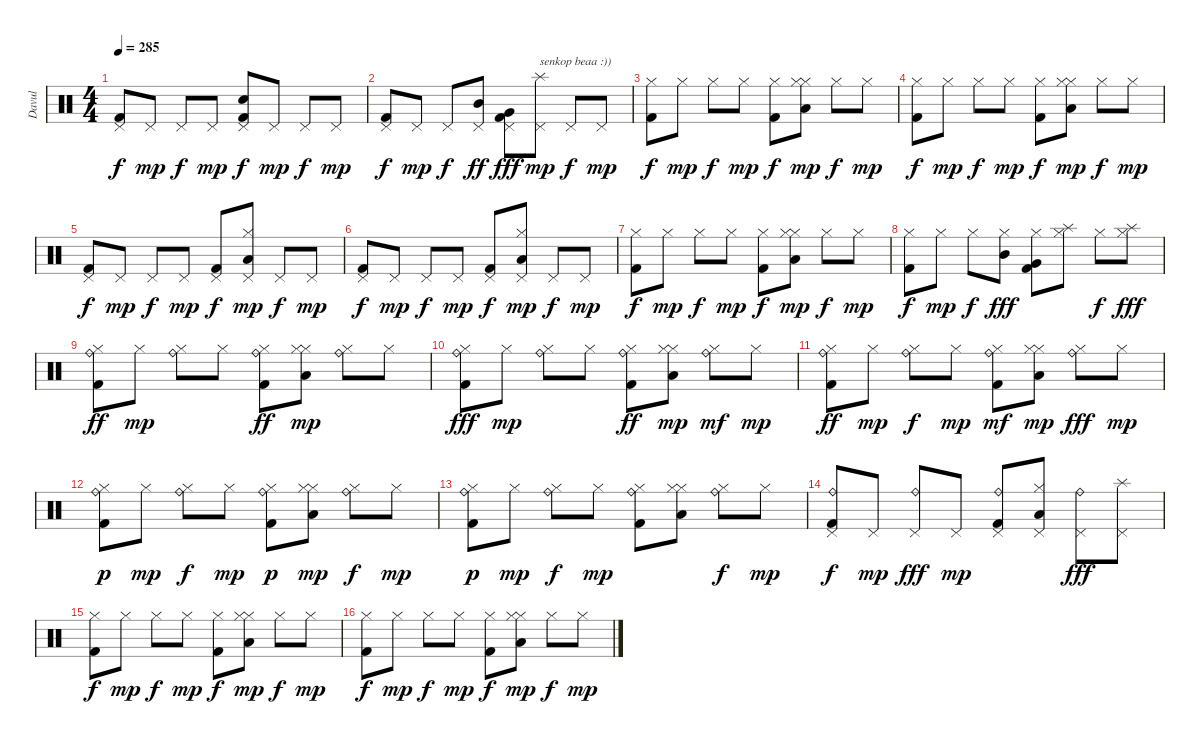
\track ("Davul" "Davul") {instrument percussion}
\staff {score}
\articulation defaults
\ts (4 4)
\tempo 285
\clef neutral
\ks c
("Pedal Hi-Hat (hit)" "Kick (hit) 2").8{dy f} "Pedal Hi-Hat (hit)".8{dy mp} "Pedal Hi-Hat (hit)".8{dy f} "Pedal Hi-Hat (hit)".8{dy mp} ("Pedal Hi-Hat (hit)" "Snare (hit) 2" "Kick (hit) 2").8{dy f} "Pedal Hi-Hat (hit)".8{dy mp} "Pedal Hi-Hat (hit)".8{dy f} "Pedal Hi-Hat (hit)".8{dy mp} |
("Pedal Hi-Hat (hit)" "Kick (hit) 2").8{dy f} "Pedal Hi-Hat (hit)".8{dy mp} "Pedal Hi-Hat (hit)".8{dy f} ("Pedal Hi-Hat (hit)" "Mid Tom (hit)").8{dy ff} ("Pedal Hi-Hat (hit)" "Very Low Tom (hit)" "Kick (hit) 2").8{dy fff} ("Pedal Hi-Hat (hit)" "Splash (hit)").8{txt "senkop beaa :))" dy mp} "Pedal Hi-Hat (hit)".8{dy f} "Pedal Hi-Hat (hit)".8{dy mp} |
("Hi-Hat (closed)" "Kick (hit) 2").8{dy f} "Hi-Hat (closed)".8{dy mp} "Hi-Hat (closed)".8{dy f} "Hi-Hat (closed)".8{dy mp} ("Hi-Hat (closed)" "Kick (hit) 2").8{dy f} ("Hi-Hat (closed)" "Hi-Hat (closed)" "Low Floor Tom (hit)").8{dy mp} "Hi-Hat (closed)".8{dy f} "Hi-Hat (closed)".8{dy mp} |
("Hi-Hat (closed)" "Kick (hit) 2").8{dy f} "Hi-Hat (closed)".8{dy mp} "Hi-Hat (closed)".8{dy f} "Hi-Hat (closed)".8{dy mp} ("Hi-Hat (closed)" "Kick (hit) 2").8{dy f} ("Hi-Hat (closed)" "Hi-Hat (closed)" "Low Floor Tom (hit)").8{dy mp} "Hi-Hat (closed)".8{dy f} "Hi-Hat (closed)".8{dy mp} |
("Pedal Hi-Hat (hit)" "Kick (hit) 2").8{dy f} "Pedal Hi-Hat (hit)".8{dy mp} "Pedal Hi-Hat (hit)".8{dy f} "Pedal Hi-Hat (hit)".8{dy mp} ("Pedal Hi-Hat (hit)" "Kick (hit) 2").8{dy f} ("Pedal Hi-Hat (hit)" "Hi-Hat (closed)" "Low Floor Tom (hit)").8{dy mp} "Pedal Hi-Hat (hit)".8{dy f} "Pedal Hi-Hat (hit)".8{dy mp} |
("Pedal Hi-Hat (hit)" "Kick (hit) 2").8{dy f} "Pedal Hi-Hat (hit)".8{dy mp} "Pedal Hi-Hat (hit)".8{dy f} "Pedal Hi-Hat (hit)".8{dy mp} ("Pedal Hi-Hat (hit)" "Kick (hit) 2").8{dy f} ("Pedal Hi-Hat (hit)" "Hi-Hat (closed)" "Low Floor Tom (hit)").8{dy mp} "Pedal Hi-Hat (hit)".8{dy f} "Pedal Hi-Hat (hit)".8{dy mp} |
("Hi-Hat (closed)" "Kick (hit) 2").8{dy f} "Hi-Hat (closed)".8{dy mp} "Hi-Hat (closed)".8{dy f} "Hi-Hat (closed)".8{dy mp} ("Hi-Hat (closed)" "Kick (hit) 2").8{dy f} ("Hi-Hat (closed)" "Hi-Hat (closed)" "Low Floor Tom (hit)").8{dy mp} "Hi-Hat (closed)".8{dy f} "Hi-Hat (closed)".8{dy mp} |
("Hi-Hat (closed)" "Kick (hit) 2").8{dy f} "Hi-Hat (closed)".8{dy mp} "Hi-Hat (closed)".8{dy f} ("Hi-Hat (closed)" "Mid Tom (hit)").8{dy fff} ("Hi-Hat (closed)" "Very Low Tom (hit)" "Kick (hit) 2").8 ("Hi-Hat (closed)" "Splash (hit)").8 "Hi-Hat (closed)".8{dy f} ("Hi-Hat (closed)" "Splash (hit)").8{dy fff} |
("Hi-Hat (closed)" "Ride (bell)" "Kick (hit) 2").8{dy ff} "Hi-Hat (closed)".8{dy mp} ("Hi-Hat (closed)" "Ride (bell)").8 "Hi-Hat (closed)".8 ("Hi-Hat (closed)" "Ride (bell)" "Kick (hit) 2").8{dy ff} ("Hi-Hat (closed)" "Hi-Hat (closed)" "Low Floor Tom (hit)").8{dy mp} ("Hi-Hat (closed)" "Ride (bell)").8 "Hi-Hat (closed)".8 |
("Hi-Hat (closed)" "Ride (bell)" "Kick (hit) 2").8{dy fff} "Hi-Hat (closed)".8{dy mp} ("Hi-Hat (closed)" "Ride (bell)").8 "Hi-Hat (closed)".8 ("Hi-Hat (closed)" "Ride (bell)" "Kick (hit) 2").8{dy ff} ("Hi-Hat (closed)" "Hi-Hat (closed)" "Low Floor Tom (hit)").8{dy mp} ("Hi-Hat (closed)" "Ride (bell)").8{dy mf} "Hi-Hat (closed)".8{dy mp} |
("Hi-Hat (closed)" "Ride (bell)" "Kick (hit) 2").8{dy ff} "Hi-Hat (closed)".8{dy mp} ("Hi-Hat (closed)" "Ride (bell)").8{dy f} "Hi-Hat (closed)".8{dy mp} ("Hi-Hat (closed)" "Ride (bell)" "Kick (hit) 2").8{dy mf} ("Hi-Hat (closed)" "Hi-Hat (closed)" "Low Floor Tom (hit)").8{dy mp} ("Hi-Hat (closed)" "Ride (bell)").8{dy fff} "Hi-Hat (closed)".8{dy mp} |
("Hi-Hat (closed)" "Ride (bell)" "Kick (hit) 2").8{dy p} "Hi-Hat (closed)".8{dy mp} ("Hi-Hat (closed)" "Ride (bell)").8{dy f} "Hi-Hat (closed)".8{dy mp} ("Hi-Hat (closed)" "Ride (bell)" "Kick (hit) 2").8{dy p} ("Hi-Hat (closed)" "Hi-Hat (closed)" "Low Floor Tom (hit)").8{dy mp} ("Hi-Hat (closed)" "Ride (bell)").8{dy f} "Hi-Hat (closed)".8{dy mp} |
("Hi-Hat (closed)" "Ride (bell)" "Kick (hit) 2").8{dy p} "Hi-Hat (closed)".8{dy mp} ("Hi-Hat (closed)" "Ride (bell)").8{dy f} "Hi-Hat (closed)".8{dy mp} ("Hi-Hat (closed)" "Ride (bell)" "Kick (hit) 2").8 ("Hi-Hat (closed)" "Hi-Hat (closed)" "Low Floor Tom (hit)").8 ("Hi-Hat (closed)" "Ride (bell)").8{dy f} "Hi-Hat (closed)".8{dy mp} |
("Pedal Hi-Hat (hit)" "Ride (bell)" "Kick (hit) 2").8{dy f} "Pedal Hi-Hat (hit)".8{dy mp} ("Pedal Hi-Hat (hit)" "Ride (bell)").8{dy fff} "Pedal Hi-Hat (hit)".8{dy mp} ("Pedal Hi-Hat (hit)" "Ride (bell)" "Kick (hit) 2").8 ("Pedal Hi-Hat (hit)" "Hi-Hat (closed)" "Low Floor Tom (hit)").8 ("Pedal Hi-Hat (hit)" "Ride (bell)").8{dy fff} ("Pedal Hi-Hat (hit)" "Splash (hit)").8 |
("Hi-Hat (closed)" "Kick (hit) 2").8{dy f} "Hi-Hat (closed)".8{dy mp} "Hi-Hat (closed)".8{dy f} "Hi-Hat (closed)".8{dy mp} ("Hi-Hat (closed)" "Kick (hit) 2").8{dy f} ("Hi-Hat (closed)" "Hi-Hat (closed)" "Low Floor Tom (hit)").8{dy mp} "Hi-Hat (closed)".8{dy f} "Hi-Hat (closed)".8{dy mp} |
("Hi-Hat (closed)" "Kick (hit) 2").8{dy f} "Hi-Hat (closed)".8{dy mp} "Hi-Hat (closed)".8{dy f} "Hi-Hat (closed)".8{dy mp} ("Hi-Hat (closed)" "Kick (hit) 2").8{dy f} ("Hi-Hat (closed)" "Hi-Hat (closed)" "Low Floor Tom (hit)").8{dy mp} "Hi-Hat (closed)".8{dy f} "Hi-Hat (closed)".8{dy mp}
